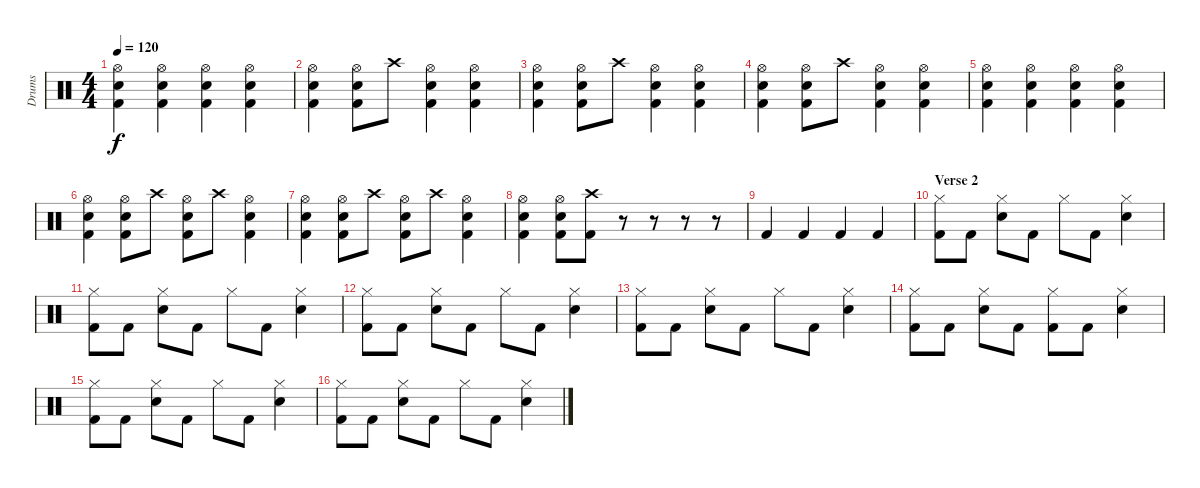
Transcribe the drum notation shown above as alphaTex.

\track ("Drums" "Drums") {instrument percussion}
\staff {score}
\articulation defaults
\ts (4 4)
\tempo 120
\clef neutral
\ks c
("Hi-Hat (open)" "Snare (hit) 2" "Kick (hit) 2").4{dy f} ("Hi-Hat (open)" "Snare (hit) 2" "Kick (hit) 2").4 ("Hi-Hat (open)" "Snare (hit) 2" "Kick (hit) 2").4 ("Hi-Hat (open)" "Snare (hit) 2" "Kick (hit) 2").4 |
("Hi-Hat (open)" "Snare (hit) 2" "Kick (hit) 2").4 ("Hi-Hat (open)" "Snare (hit) 2" "Kick (hit) 2").8 "Crash high (hit)".8 ("Hi-Hat (open)" "Snare (hit) 2" "Kick (hit) 2").4 ("Hi-Hat (open)" "Snare (hit) 2" "Kick (hit) 2").4 |
("Hi-Hat (open)" "Snare (hit) 2" "Kick (hit) 2").4 ("Hi-Hat (open)" "Snare (hit) 2" "Kick (hit) 2").8 "Crash high (hit)".8 ("Hi-Hat (open)" "Snare (hit) 2" "Kick (hit) 2").4 ("Hi-Hat (open)" "Snare (hit) 2" "Kick (hit) 2").4 |
("Hi-Hat (open)" "Snare (hit) 2" "Kick (hit) 2").4 ("Hi-Hat (open)" "Snare (hit) 2" "Kick (hit) 2").8 "Crash high (hit)".8 ("Hi-Hat (open)" "Snare (hit) 2" "Kick (hit) 2").4 ("Hi-Hat (open)" "Snare (hit) 2" "Kick (hit) 2").4 |
("Hi-Hat (open)" "Snare (hit) 2" "Kick (hit) 2").4 ("Hi-Hat (open)" "Snare (hit) 2" "Kick (hit) 2").4 ("Hi-Hat (open)" "Snare (hit) 2" "Kick (hit) 2").4 ("Hi-Hat (open)" "Snare (hit) 2" "Kick (hit) 2").4 |
("Hi-Hat (open)" "Snare (hit) 2" "Kick (hit) 2").4 ("Hi-Hat (open)" "Snare (hit) 2" "Kick (hit) 2").8 "Crash high (hit)".8 ("Hi-Hat (open)" "Snare (hit) 2" "Kick (hit) 2").8 "Crash high (hit)".8 ("Hi-Hat (open)" "Snare (hit) 2" "Kick (hit) 2").4 |
("Hi-Hat (open)" "Snare (hit) 2" "Kick (hit) 2").4 ("Hi-Hat (open)" "Snare (hit) 2" "Kick (hit) 2").8 "Crash high (hit)".8 ("Hi-Hat (open)" "Snare (hit) 2" "Kick (hit) 2").8 "Crash high (hit)".8 ("Hi-Hat (open)" "Snare (hit) 2" "Kick (hit) 2").4 |
("Hi-Hat (open)" "Snare (hit) 2" "Kick (hit) 2").4 ("Hi-Hat (open)" "Snare (hit) 2" "Kick (hit) 2").8 ("Crash high (hit)" "Kick (hit) 2").8 r.8 r.8 r.8 r.8 |
"Kick (hit) 2".4 "Kick (hit) 2".4 "Kick (hit) 2".4 "Kick (hit) 2".4 |
\section ("" "Verse 2")
("Hi-Hat (closed)" "Kick (hit) 2").8 "Kick (hit) 2".8 ("Hi-Hat (closed)" "Snare (hit) 2").8 "Kick (hit) 2".8 "Hi-Hat (closed)".8 "Kick (hit) 2".8 ("Hi-Hat (closed)" "Snare (hit) 2").4 |
("Hi-Hat (closed)" "Kick (hit) 2").8 "Kick (hit) 2".8 ("Hi-Hat (closed)" "Snare (hit) 2").8 "Kick (hit) 2".8 "Hi-Hat (closed)".8 "Kick (hit) 2".8 ("Hi-Hat (closed)" "Snare (hit) 2").4 |
("Hi-Hat (closed)" "Kick (hit) 2").8 "Kick (hit) 2".8 ("Hi-Hat (closed)" "Snare (hit) 2").8 "Kick (hit) 2".8 "Hi-Hat (closed)".8 "Kick (hit) 2".8 ("Hi-Hat (closed)" "Snare (hit) 2").4 |
("Hi-Hat (closed)" "Kick (hit) 2").8 "Kick (hit) 2".8 ("Hi-Hat (closed)" "Snare (hit) 2").8 "Kick (hit) 2".8 "Hi-Hat (closed)".8 "Kick (hit) 2".8 ("Hi-Hat (closed)" "Snare (hit) 2").4 |
("Hi-Hat (closed)" "Kick (hit) 2").8 "Kick (hit) 2".8 ("Hi-Hat (closed)" "Snare (hit) 2").8 "Kick (hit) 2".8 ("Hi-Hat (closed)" "Kick (hit) 2").8 "Kick (hit) 2".8 ("Hi-Hat (closed)" "Snare (hit) 2").4 |
("Hi-Hat (closed)" "Kick (hit) 2").8 "Kick (hit) 2".8 ("Hi-Hat (closed)" "Snare (hit) 2").8 "Kick (hit) 2".8 "Hi-Hat (closed)".8 "Kick (hit) 2".8 ("Hi-Hat (closed)" "Snare (hit) 2").4 |
("Hi-Hat (closed)" "Kick (hit) 2").8 "Kick (hit) 2".8 ("Hi-Hat (closed)" "Snare (hit) 2").8 "Kick (hit) 2".8 "Hi-Hat (closed)".8 "Kick (hit) 2".8 ("Hi-Hat (closed)" "Snare (hit) 2").4
